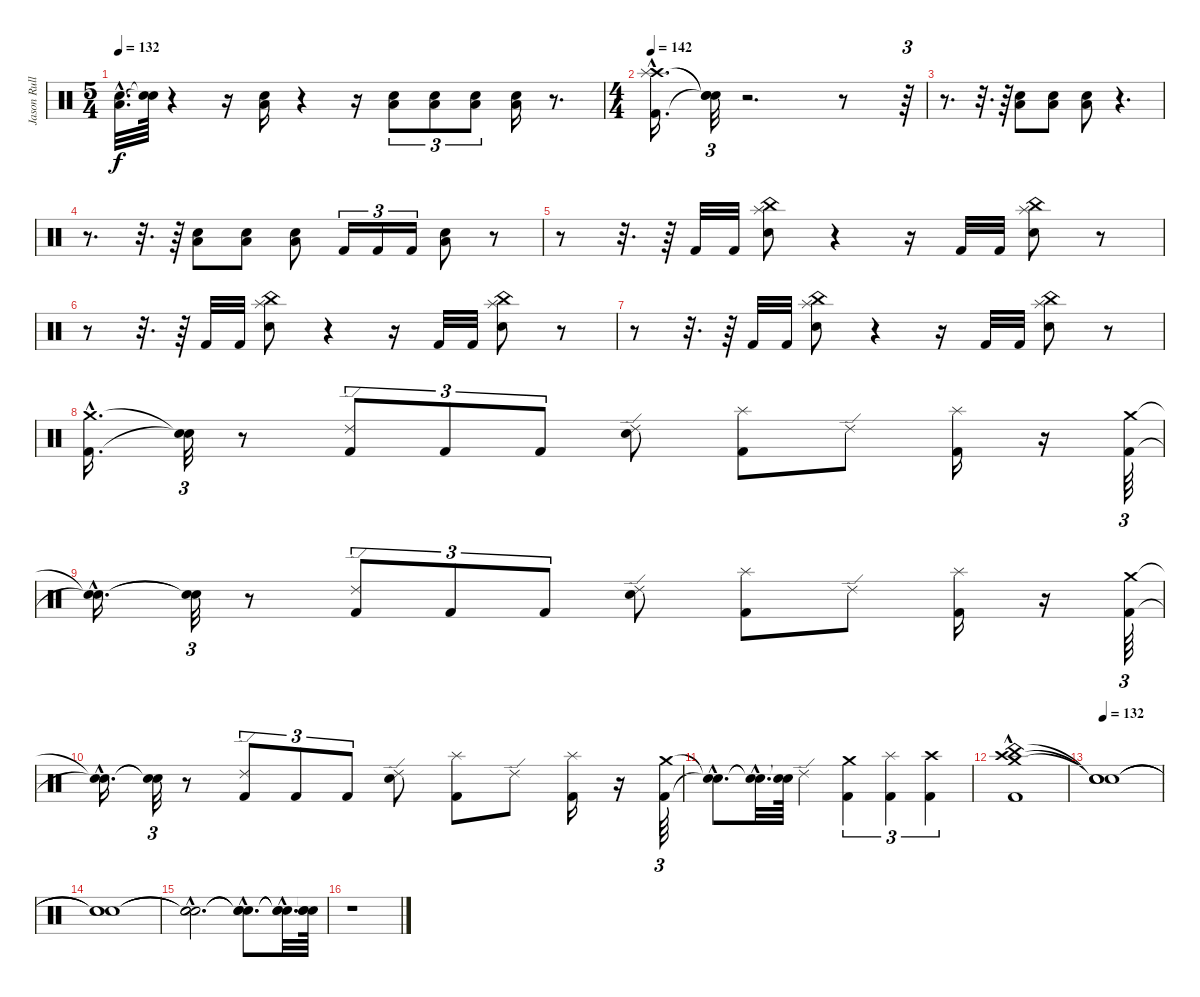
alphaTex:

\track ("Jason Rullo" "Jason Rull") {instrument percussion}
\staff {score}
\articulation defaults
\ts (5 4)
\tempo 132
\clef neutral
\ks c
("Low Tom (hit)"{hac} "Electric Snare (hit)"{hac}).32{d dy f} ("Snare (hit)"{t} "Snare (hit)"{t}).64 r.4 r.16 ("Low Tom (hit)" "Electric Snare (hit)").16 r.4 r.16 ("Low Tom (hit)" "Electric Snare (hit)").8{tu (3 2)} ("Low Tom (hit)" "Electric Snare (hit)").8{tu (3 2)} ("Low Tom (hit)" "Electric Snare (hit)").8{tu (3 2)} ("Low Tom (hit)" "Electric Snare (hit)").16 r.8{d} |
\ts (4 4)
\tempo 142
("Crash high (hit)"{hac} "Splash (hit)"{hac} "Kick (hit) 2"{hac}).16{d} ("Snare (hit)"{t} "Snare (hit)"{t} "Snare (hit)"{t}).32{tu (3 2)} r.2{d} r.8 r.64{tu (3 2)} |
r.8{d} r.32{d} r.64 ("Low Tom (hit)" "Electric Snare (hit)").8 ("Low Tom (hit)" "Electric Snare (hit)").8 ("Electric Snare (hit)" "Low Tom (hit)").8 r.4{d} |
r.8{d} r.32{d} r.64 ("Low Tom (hit)" "Electric Snare (hit)").8 ("Electric Snare (hit)" "Low Tom (hit)").8 ("Low Tom (hit)" "Electric Snare (hit)").8 "Kick (hit) 2".16{tu (3 2)} "Kick (hit) 2".16{tu (3 2)} "Kick (hit) 2".16{tu (3 2)} ("Low Tom (hit)" "Electric Snare (hit)").8 r.8 |
r.8 r.32{d} r.64 "Kick (hit) 2".32 "Kick (hit) 2".32 ("China (hit)" "Splash (hit)" "Electric Snare (hit)").8 r.4 r.16 "Kick (hit) 2".32 "Kick (hit) 2".32 ("Splash (hit)" "China (hit)" "Electric Snare (hit)").8 r.8 |
r.8 r.32{d} r.64 "Kick (hit) 2".32 "Kick (hit) 2".32 ("China (hit)" "Splash (hit)" "Electric Snare (hit)").8 r.4 r.16 "Kick (hit) 2".32 "Kick (hit) 2".32 ("Splash (hit)" "China (hit)" "Electric Snare (hit)").8 r.8 |
r.8 r.32{d} r.64 "Kick (hit) 2".32 "Kick (hit) 2".32 ("China (hit)" "Splash (hit)" "Electric Snare (hit)").8 r.4 r.16 "Kick (hit) 2".32 "Kick (hit) 2".32 ("Splash (hit)" "China (hit)" "Electric Snare (hit)").8 r.8 |
("Crash medium (hit)"{hac} "Kick (hit) 2"{hac}).16{d} ("Snare (hit)"{t} "Snare (hit)"{t}).32{tu (3 2)} r.8 ("Ride (edge) 2" "Kick (hit) 2").8{tu (3 2)} "Kick (hit) 2".8{tu (3 2)} "Kick (hit) 2".8{tu (3 2)} ("Electric Snare (hit)" "Ride (edge) 2").8 ("Splash (hit)" "Kick (hit) 2").8 "Ride (edge) 2".8 ("Splash (hit)" "Kick (hit) 2").16 r.16 ("Crash medium (hit)" "Kick (hit) 2").64{tu (3 2)} |
("Snare (hit)"{hac t} "Snare (hit)"{hac t}).16{d} ("Snare (hit)"{t} "Snare (hit)"{t}).32{tu (3 2)} r.8 ("Ride (edge) 2" "Kick (hit) 2").8{tu (3 2)} "Kick (hit) 2".8{tu (3 2)} "Kick (hit) 2".8{tu (3 2)} ("Electric Snare (hit)" "Ride (edge) 2").8 ("Splash (hit)" "Kick (hit) 2").8 "Ride (edge) 2".8 ("Splash (hit)" "Kick (hit) 2").16 r.16 ("Crash medium (hit)" "Kick (hit) 2").64{tu (3 2)} |
("Snare (hit)"{hac t} "Snare (hit)"{hac t}).16{d} ("Snare (hit)"{t} "Snare (hit)"{t}).32{tu (3 2)} r.8 ("Ride (edge) 2" "Kick (hit) 2").8{tu (3 2)} "Kick (hit) 2".8{tu (3 2)} "Kick (hit) 2".8{tu (3 2)} ("Electric Snare (hit)" "Ride (edge) 2").8 ("Splash (hit)" "Kick (hit) 2").8 "Ride (edge) 2".8 ("Splash (hit)" "Kick (hit) 2").16 r.16 ("Crash medium (hit)" "Kick (hit) 2").64{tu (3 2)} |
("Snare (hit)"{hac t} "Snare (hit)"{hac t}).8{d} ("Snare (hit)"{hac t} "Snare (hit)"{hac t}).32{d} ("Snare (hit)"{t} "Snare (hit)"{t}).64 "Ride (edge) 2".4 ("Crash medium (hit)" "Kick (hit) 2").4{tu (3 2)} ("Splash (hit)" "Kick (hit) 2").4{tu (3 2)} ("Crash high (hit)" "Kick (hit) 2").4{tu (3 2)} |
("Crash high (hit)" "China (hit)" "Crash medium (hit)" "Kick (hit) 2"{hac}).1 |
\tempo 132
("Snare (hit)"{t} "Snare (hit)"{t} "Snare (hit)"{t}).1 |
("Snare (hit)"{t} "Snare (hit)"{t} "Snare (hit)"{t}).1 |
("Snare (hit)"{hac t} "Snare (hit)"{hac t} "Snare (hit)"{hac t}).2{d} ("Snare (hit)"{hac t} "Snare (hit)"{hac t} "Snare (hit)"{hac t}).8{d} ("Snare (hit)"{hac t} "Snare (hit)"{hac t} "Snare (hit)"{hac t}).32{d} ("Snare (hit)"{t} "Snare (hit)"{t} "Snare (hit)"{t}).64 |
r.1
